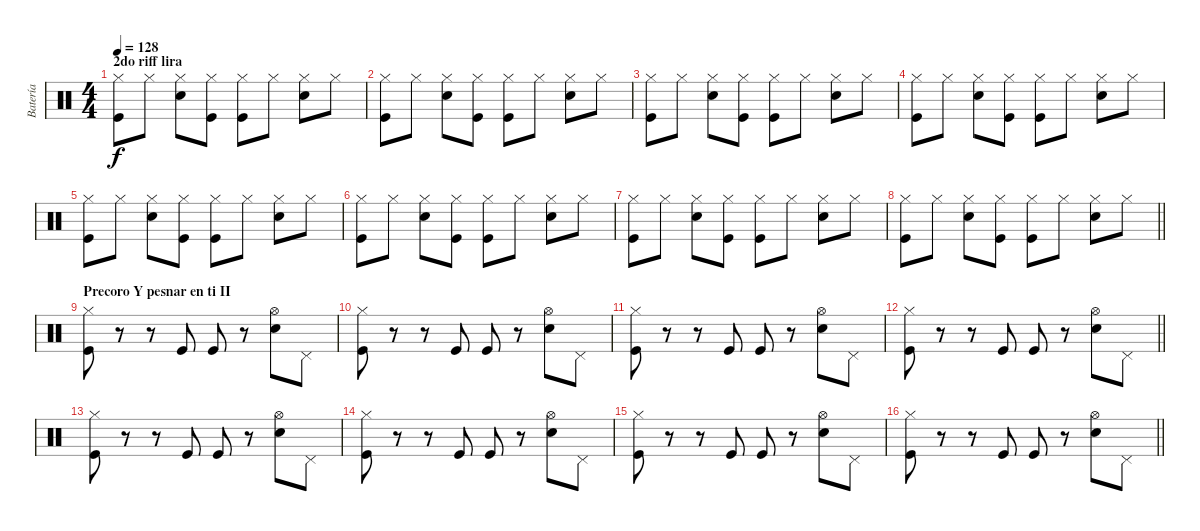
\track ("Batería" "Batería") {instrument percussion}
\staff {score}
\articulation defaults
\ts (4 4)
\section ("" "2do riff lira")
\tempo 128
\clef neutral
\ks c
("Hi-Hat (closed)" "Kick (hit)").8{dy f} "Hi-Hat (closed)".8 ("Hi-Hat (closed)" "Snare (hit) 2").8 ("Hi-Hat (closed)" "Kick (hit)").8 ("Hi-Hat (closed)" "Kick (hit)").8 "Hi-Hat (closed)".8 ("Hi-Hat (closed)" "Snare (hit) 2").8 "Hi-Hat (closed)".8 |
("Hi-Hat (closed)" "Kick (hit)").8 "Hi-Hat (closed)".8 ("Hi-Hat (closed)" "Snare (hit) 2").8 ("Hi-Hat (closed)" "Kick (hit)").8 ("Hi-Hat (closed)" "Kick (hit)").8 "Hi-Hat (closed)".8 ("Hi-Hat (closed)" "Snare (hit) 2").8 "Hi-Hat (closed)".8 |
("Hi-Hat (closed)" "Kick (hit)").8 "Hi-Hat (closed)".8 ("Hi-Hat (closed)" "Snare (hit) 2").8 ("Hi-Hat (closed)" "Kick (hit)").8 ("Hi-Hat (closed)" "Kick (hit)").8 "Hi-Hat (closed)".8 ("Hi-Hat (closed)" "Snare (hit) 2").8 "Hi-Hat (closed)".8 |
("Hi-Hat (closed)" "Kick (hit)").8 "Hi-Hat (closed)".8 ("Hi-Hat (closed)" "Snare (hit) 2").8 ("Hi-Hat (closed)" "Kick (hit)").8 ("Hi-Hat (closed)" "Kick (hit)").8 "Hi-Hat (closed)".8 ("Hi-Hat (closed)" "Snare (hit) 2").8 "Hi-Hat (closed)".8 |
("Hi-Hat (closed)" "Kick (hit)").8 "Hi-Hat (closed)".8 ("Hi-Hat (closed)" "Snare (hit) 2").8 ("Hi-Hat (closed)" "Kick (hit)").8 ("Hi-Hat (closed)" "Kick (hit)").8 "Hi-Hat (closed)".8 ("Hi-Hat (closed)" "Snare (hit) 2").8 "Hi-Hat (closed)".8 |
("Hi-Hat (closed)" "Kick (hit)").8 "Hi-Hat (closed)".8 ("Hi-Hat (closed)" "Snare (hit) 2").8 ("Hi-Hat (closed)" "Kick (hit)").8 ("Hi-Hat (closed)" "Kick (hit)").8 "Hi-Hat (closed)".8 ("Hi-Hat (closed)" "Snare (hit) 2").8 "Hi-Hat (closed)".8 |
("Hi-Hat (closed)" "Kick (hit)").8 "Hi-Hat (closed)".8 ("Hi-Hat (closed)" "Snare (hit) 2").8 ("Hi-Hat (closed)" "Kick (hit)").8 ("Hi-Hat (closed)" "Kick (hit)").8 "Hi-Hat (closed)".8 ("Hi-Hat (closed)" "Snare (hit) 2").8 "Hi-Hat (closed)".8 |
\barLineRight lightlight
("Hi-Hat (closed)" "Kick (hit)").8 "Hi-Hat (closed)".8 ("Hi-Hat (closed)" "Snare (hit) 2").8 ("Hi-Hat (closed)" "Kick (hit)").8 ("Hi-Hat (closed)" "Kick (hit)").8 "Hi-Hat (closed)".8 ("Hi-Hat (closed)" "Snare (hit) 2").8 "Hi-Hat (closed)".8 |
\section ("" "Precoro Y pesnar en ti II")
("Hi-Hat (closed)" "Kick (hit)").8 r.8 r.8 "Kick (hit)".8 "Kick (hit)".8 r.8 ("Hi-Hat (open)" "Snare (hit) 2").8 "Pedal Hi-Hat (hit)".8 |
("Hi-Hat (closed)" "Kick (hit)").8 r.8 r.8 "Kick (hit)".8 "Kick (hit)".8 r.8 ("Hi-Hat (open)" "Snare (hit) 2").8 "Pedal Hi-Hat (hit)".8 |
("Hi-Hat (closed)" "Kick (hit)").8 r.8 r.8 "Kick (hit)".8 "Kick (hit)".8 r.8 ("Hi-Hat (open)" "Snare (hit) 2").8 "Pedal Hi-Hat (hit)".8 |
\barLineRight lightlight
("Hi-Hat (closed)" "Kick (hit)").8 r.8 r.8 "Kick (hit)".8 "Kick (hit)".8 r.8 ("Hi-Hat (open)" "Snare (hit) 2").8 "Pedal Hi-Hat (hit)".8 |
("Hi-Hat (closed)" "Kick (hit)").8 r.8 r.8 "Kick (hit)".8 "Kick (hit)".8 r.8 ("Hi-Hat (open)" "Snare (hit) 2").8 "Pedal Hi-Hat (hit)".8 |
("Hi-Hat (closed)" "Kick (hit)").8 r.8 r.8 "Kick (hit)".8 "Kick (hit)".8 r.8 ("Hi-Hat (open)" "Snare (hit) 2").8 "Pedal Hi-Hat (hit)".8 |
("Hi-Hat (closed)" "Kick (hit)").8 r.8 r.8 "Kick (hit)".8 "Kick (hit)".8 r.8 ("Hi-Hat (open)" "Snare (hit) 2").8 "Pedal Hi-Hat (hit)".8 |
\barLineRight lightlight
("Hi-Hat (closed)" "Kick (hit)").8 r.8 r.8 "Kick (hit)".8 "Kick (hit)".8 r.8 ("Hi-Hat (open)" "Snare (hit) 2").8 "Pedal Hi-Hat (hit)".8
